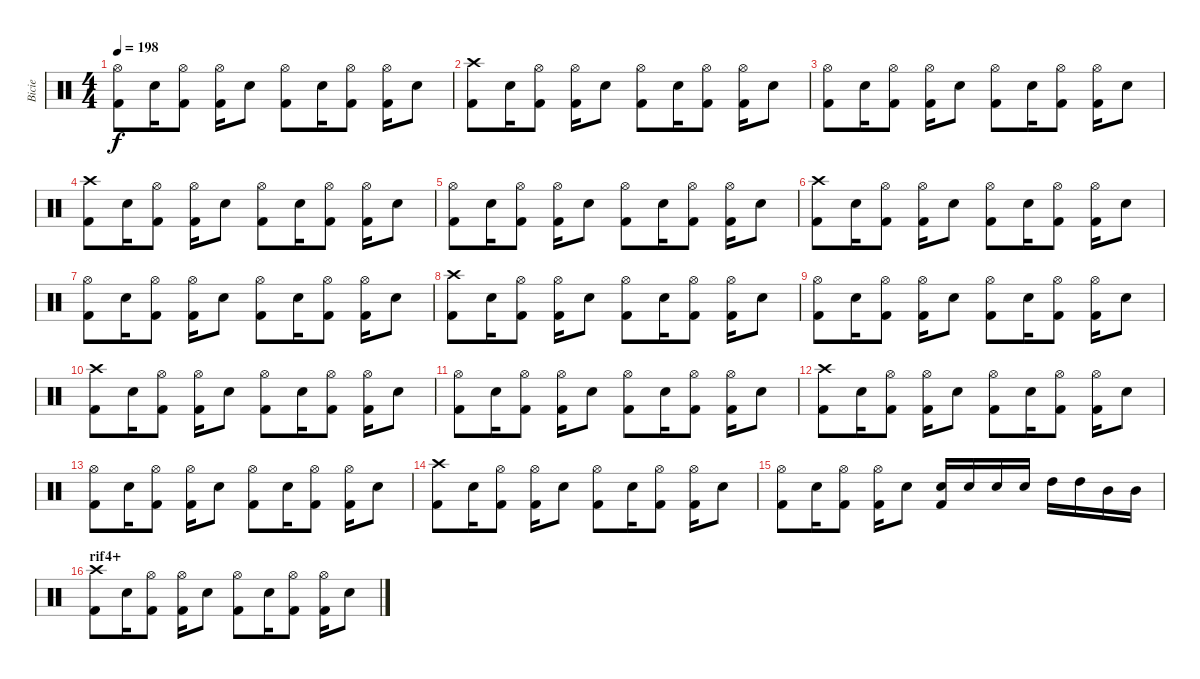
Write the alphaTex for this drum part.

\track ("Bicie" "Bicie") {instrument percussion}
\staff {score}
\articulation defaults
\ts (4 4)
\tempo 198
\clef neutral
\ks c
("Hi-Hat (open)" "Kick (hit) 2").8{dy f} "Electric Snare (hit)".16 ("Hi-Hat (open)" "Kick (hit) 2").8 ("Hi-Hat (open)" "Kick (hit) 2").16 "Electric Snare (hit)".8 ("Hi-Hat (open)" "Kick (hit) 2").8 "Electric Snare (hit)".16 ("Hi-Hat (open)" "Kick (hit) 2").8 ("Hi-Hat (open)" "Kick (hit) 2").16 "Electric Snare (hit)".8 |
("Crash high (hit)" "Kick (hit) 2").8 "Electric Snare (hit)".16 ("Hi-Hat (open)" "Kick (hit) 2").8 ("Hi-Hat (open)" "Kick (hit) 2").16 "Electric Snare (hit)".8 ("Hi-Hat (open)" "Kick (hit) 2").8 "Electric Snare (hit)".16 ("Hi-Hat (open)" "Kick (hit) 2").8 ("Hi-Hat (open)" "Kick (hit) 2").16 "Electric Snare (hit)".8 |
("Hi-Hat (open)" "Kick (hit) 2").8 "Electric Snare (hit)".16 ("Hi-Hat (open)" "Kick (hit) 2").8 ("Hi-Hat (open)" "Kick (hit) 2").16 "Electric Snare (hit)".8 ("Hi-Hat (open)" "Kick (hit) 2").8 "Electric Snare (hit)".16 ("Hi-Hat (open)" "Kick (hit) 2").8 ("Hi-Hat (open)" "Kick (hit) 2").16 "Electric Snare (hit)".8 |
("Crash high (hit)" "Kick (hit) 2").8 "Electric Snare (hit)".16 ("Hi-Hat (open)" "Kick (hit) 2").8 ("Hi-Hat (open)" "Kick (hit) 2").16 "Electric Snare (hit)".8 ("Hi-Hat (open)" "Kick (hit) 2").8 "Electric Snare (hit)".16 ("Hi-Hat (open)" "Kick (hit) 2").8 ("Hi-Hat (open)" "Kick (hit) 2").16 "Electric Snare (hit)".8 |
("Hi-Hat (open)" "Kick (hit) 2").8 "Electric Snare (hit)".16 ("Hi-Hat (open)" "Kick (hit) 2").8 ("Hi-Hat (open)" "Kick (hit) 2").16 "Electric Snare (hit)".8 ("Hi-Hat (open)" "Kick (hit) 2").8 "Electric Snare (hit)".16 ("Hi-Hat (open)" "Kick (hit) 2").8 ("Hi-Hat (open)" "Kick (hit) 2").16 "Electric Snare (hit)".8 |
("Crash high (hit)" "Kick (hit) 2").8 "Electric Snare (hit)".16 ("Hi-Hat (open)" "Kick (hit) 2").8 ("Hi-Hat (open)" "Kick (hit) 2").16 "Electric Snare (hit)".8 ("Hi-Hat (open)" "Kick (hit) 2").8 "Electric Snare (hit)".16 ("Hi-Hat (open)" "Kick (hit) 2").8 ("Hi-Hat (open)" "Kick (hit) 2").16 "Electric Snare (hit)".8 |
("Hi-Hat (open)" "Kick (hit) 2").8 "Electric Snare (hit)".16 ("Hi-Hat (open)" "Kick (hit) 2").8 ("Hi-Hat (open)" "Kick (hit) 2").16 "Electric Snare (hit)".8 ("Hi-Hat (open)" "Kick (hit) 2").8 "Electric Snare (hit)".16 ("Hi-Hat (open)" "Kick (hit) 2").8 ("Hi-Hat (open)" "Kick (hit) 2").16 "Electric Snare (hit)".8 |
("Crash high (hit)" "Kick (hit) 2").8 "Electric Snare (hit)".16 ("Hi-Hat (open)" "Kick (hit) 2").8 ("Hi-Hat (open)" "Kick (hit) 2").16 "Electric Snare (hit)".8 ("Hi-Hat (open)" "Kick (hit) 2").8 "Electric Snare (hit)".16 ("Hi-Hat (open)" "Kick (hit) 2").8 ("Hi-Hat (open)" "Kick (hit) 2").16 "Electric Snare (hit)".8 |
("Hi-Hat (open)" "Kick (hit) 2").8 "Electric Snare (hit)".16 ("Hi-Hat (open)" "Kick (hit) 2").8 ("Hi-Hat (open)" "Kick (hit) 2").16 "Electric Snare (hit)".8 ("Hi-Hat (open)" "Kick (hit) 2").8 "Electric Snare (hit)".16 ("Hi-Hat (open)" "Kick (hit) 2").8 ("Hi-Hat (open)" "Kick (hit) 2").16 "Electric Snare (hit)".8 |
("Crash high (hit)" "Kick (hit) 2").8 "Electric Snare (hit)".16 ("Hi-Hat (open)" "Kick (hit) 2").8 ("Hi-Hat (open)" "Kick (hit) 2").16 "Electric Snare (hit)".8 ("Hi-Hat (open)" "Kick (hit) 2").8 "Electric Snare (hit)".16 ("Hi-Hat (open)" "Kick (hit) 2").8 ("Hi-Hat (open)" "Kick (hit) 2").16 "Electric Snare (hit)".8 |
("Hi-Hat (open)" "Kick (hit) 2").8 "Electric Snare (hit)".16 ("Hi-Hat (open)" "Kick (hit) 2").8 ("Hi-Hat (open)" "Kick (hit) 2").16 "Electric Snare (hit)".8 ("Hi-Hat (open)" "Kick (hit) 2").8 "Electric Snare (hit)".16 ("Hi-Hat (open)" "Kick (hit) 2").8 ("Hi-Hat (open)" "Kick (hit) 2").16 "Electric Snare (hit)".8 |
("Crash high (hit)" "Kick (hit) 2").8 "Electric Snare (hit)".16 ("Hi-Hat (open)" "Kick (hit) 2").8 ("Hi-Hat (open)" "Kick (hit) 2").16 "Electric Snare (hit)".8 ("Hi-Hat (open)" "Kick (hit) 2").8 "Electric Snare (hit)".16 ("Hi-Hat (open)" "Kick (hit) 2").8 ("Hi-Hat (open)" "Kick (hit) 2").16 "Electric Snare (hit)".8 |
("Hi-Hat (open)" "Kick (hit) 2").8 "Electric Snare (hit)".16 ("Hi-Hat (open)" "Kick (hit) 2").8 ("Hi-Hat (open)" "Kick (hit) 2").16 "Electric Snare (hit)".8 ("Hi-Hat (open)" "Kick (hit) 2").8 "Electric Snare (hit)".16 ("Hi-Hat (open)" "Kick (hit) 2").8 ("Hi-Hat (open)" "Kick (hit) 2").16 "Electric Snare (hit)".8 |
("Crash high (hit)" "Kick (hit) 2").8 "Electric Snare (hit)".16 ("Hi-Hat (open)" "Kick (hit) 2").8 ("Hi-Hat (open)" "Kick (hit) 2").16 "Electric Snare (hit)".8 ("Hi-Hat (open)" "Kick (hit) 2").8 "Electric Snare (hit)".16 ("Hi-Hat (open)" "Kick (hit) 2").8 ("Hi-Hat (open)" "Kick (hit) 2").16 "Electric Snare (hit)".8 |
("Hi-Hat (open)" "Kick (hit) 2").8 "Electric Snare (hit)".16 ("Hi-Hat (open)" "Kick (hit) 2").8 ("Hi-Hat (open)" "Kick (hit) 2").16 "Electric Snare (hit)".8 ("Electric Snare (hit)" "Kick (hit) 2").16 "Electric Snare (hit)".16 "Electric Snare (hit)".16 "Electric Snare (hit)".16 "High Tom (hit)".16 "High Tom (hit)".16 "Mid Tom (hit)".16 "Mid Tom (hit)".16 |
\section ("" "rif4+")
("Crash high (hit)" "Kick (hit) 2").8 "Electric Snare (hit)".16 ("Hi-Hat (open)" "Kick (hit) 2").8 ("Hi-Hat (open)" "Kick (hit) 2").16 "Electric Snare (hit)".8 ("Hi-Hat (open)" "Kick (hit) 2").8 "Electric Snare (hit)".16 ("Hi-Hat (open)" "Kick (hit) 2").8 ("Hi-Hat (open)" "Kick (hit) 2").16 "Electric Snare (hit)".8
